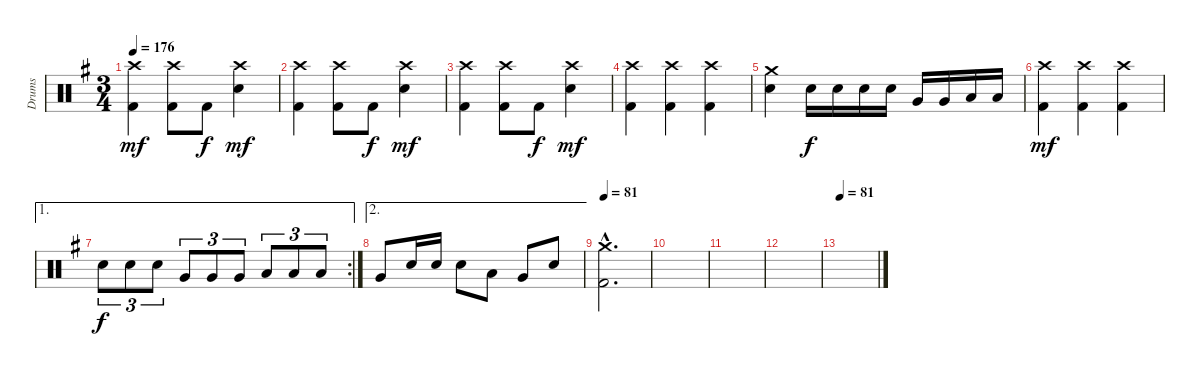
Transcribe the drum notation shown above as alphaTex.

\track ("Drums" "Drums") {instrument percussion}
\staff {score}
\articulation defaults
\ts (3 4)
\tempo 176
\clef neutral
\ks g
("Crash high (hit)" "Kick (hit) 2").4{dy mf} ("Crash high (hit)" "Kick (hit) 2").8 "Kick (hit) 2".8{dy f} ("Crash high (hit)" "Snare (hit) 2").4{dy mf} |
("Crash high (hit)" "Kick (hit) 2").4 ("Crash high (hit)" "Kick (hit) 2").8 "Kick (hit) 2".8{dy f} ("Crash high (hit)" "Snare (hit) 2").4{dy mf} |
("Crash high (hit)" "Kick (hit) 2").4 ("Crash high (hit)" "Kick (hit) 2").8 "Kick (hit) 2".8{dy f} ("Crash high (hit)" "Snare (hit) 2").4{dy mf} |
("Crash high (hit)" "Kick (hit) 2").4 ("Crash high (hit)" "Kick (hit) 2").4 ("Crash high (hit)" "Kick (hit) 2").4 |
("Crash medium (hit)" "Snare (hit) 2").4 "Snare (hit) 2".16{dy f} "Snare (hit) 2".16 "Snare (hit) 2".16 "Snare (hit) 2".16 "Very Low Tom (hit)".16 "Very Low Tom (hit)".16 "Low Floor Tom (hit)".16 "Low Floor Tom (hit)".16 |
("Crash high (hit)" "Kick (hit) 2").4{dy mf} ("Crash high (hit)" "Kick (hit) 2").4 ("Crash high (hit)" "Kick (hit) 2").4 |
\ae 1
\rc 2 "Snare (hit) 2".8{tu (3 2) dy f} "Snare (hit) 2".8{tu (3 2)} "Snare (hit) 2".8{tu (3 2)} "Very Low Tom (hit)".8{tu (3 2)} "Very Low Tom (hit)".8{tu (3 2)} "Very Low Tom (hit)".8{tu (3 2)} "Low Floor Tom (hit)".8{tu (3 2)} "Low Floor Tom (hit)".8{tu (3 2)} "Low Floor Tom (hit)".8{tu (3 2)}
|
\ae 2 "Very Low Tom (hit)".8 "Snare (hit) 2".16 "Snare (hit) 2".16 "Snare (hit) 2".8 "Low Tom (hit)".8 "Very Low Tom (hit)".8 "Snare (hit) 2".8
|
\tempo 81
("Crash medium (hit)"{hac} "Kick (hit) 2"{hac}).2{d} |
|
|
|
\tempo 81
